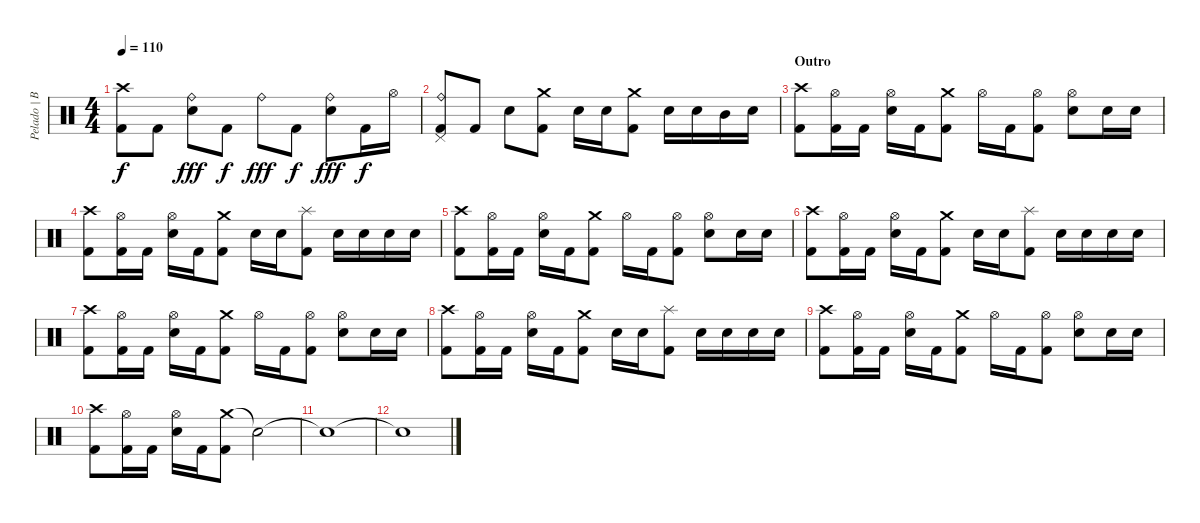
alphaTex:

\track ("Pelado | Bateria" "Pelado | B") {instrument percussion}
\staff {score}
\articulation defaults
\ts (4 4)
\tempo 110
\clef neutral
\ks c
("Crash high (hit)" "Kick (hit) 2").8{dy f} "Kick (hit) 2".8 ("Ride (bell)" "Snare (hit) 2").8{dy fff} "Kick (hit) 2".8{dy f} "Ride (bell)".8{dy fff} "Kick (hit) 2".8{dy f} ("Ride (bell)" "Snare (hit) 2").8{dy fff} "Kick (hit) 2".16{dy f} "Hi-Hat (open)".16 |
("Ride (bell)" "Pedal Hi-Hat (hit)" "Kick (hit) 2").8 "Kick (hit) 2".8 "Snare (hit) 2".8 ("Crash medium (hit)" "Kick (hit) 2").8 "Snare (hit) 2".16 "Snare (hit) 2".16 ("Crash medium (hit)" "Kick (hit) 2").8 "Snare (hit) 2".16 "Snare (hit) 2".16 "Mid Tom (hit)".16 "Snare (hit) 2".16 |
\section ("" "Outro")
("Crash high (hit)" "Kick (hit) 2").8 ("Hi-Hat (open)" "Kick (hit) 2").16 "Kick (hit) 2".16 ("Hi-Hat (open)" "Snare (hit) 2").16 "Kick (hit) 2".16 ("Crash medium (hit)" "Kick (hit) 2").8 "Hi-Hat (open)".16 "Kick (hit) 2".16 ("Hi-Hat (open)" "Kick (hit) 2").8 ("Hi-Hat (open)" "Snare (hit) 2").8 "Snare (hit) 2".16 "Snare (hit) 2".16 |
("Crash high (hit)" "Kick (hit) 2").8 ("Hi-Hat (open)" "Kick (hit) 2").16 "Kick (hit) 2".16 ("Hi-Hat (open)" "Snare (hit) 2").16 "Kick (hit) 2".16 ("Crash medium (hit)" "Kick (hit) 2").8 "Snare (hit) 2".16 "Snare (hit) 2".16 ("Splash (hit)" "Kick (hit) 2").8 "Snare (hit) 2".16 "Snare (hit) 2".16 "Snare (hit) 2".16 "Snare (hit) 2".16 |
("Crash high (hit)" "Kick (hit) 2").8 ("Hi-Hat (open)" "Kick (hit) 2").16 "Kick (hit) 2".16 ("Hi-Hat (open)" "Snare (hit) 2").16 "Kick (hit) 2".16 ("Crash medium (hit)" "Kick (hit) 2").8 "Hi-Hat (open)".16 "Kick (hit) 2".16 ("Hi-Hat (open)" "Kick (hit) 2").8 ("Hi-Hat (open)" "Snare (hit) 2").8 "Snare (hit) 2".16 "Snare (hit) 2".16 |
("Crash high (hit)" "Kick (hit) 2").8 ("Hi-Hat (open)" "Kick (hit) 2").16 "Kick (hit) 2".16 ("Hi-Hat (open)" "Snare (hit) 2").16 "Kick (hit) 2".16 ("Crash medium (hit)" "Kick (hit) 2").8 "Snare (hit) 2".16 "Snare (hit) 2".16 ("Splash (hit)" "Kick (hit) 2").8 "Snare (hit) 2".16 "Snare (hit) 2".16 "Snare (hit) 2".16 "Snare (hit) 2".16 |
("Crash high (hit)" "Kick (hit) 2").8 ("Hi-Hat (open)" "Kick (hit) 2").16 "Kick (hit) 2".16 ("Hi-Hat (open)" "Snare (hit) 2").16 "Kick (hit) 2".16 ("Crash medium (hit)" "Kick (hit) 2").8 "Hi-Hat (open)".16 "Kick (hit) 2".16 ("Hi-Hat (open)" "Kick (hit) 2").8 ("Hi-Hat (open)" "Snare (hit) 2").8 "Snare (hit) 2".16 "Snare (hit) 2".16 |
("Crash high (hit)" "Kick (hit) 2").8 ("Hi-Hat (open)" "Kick (hit) 2").16 "Kick (hit) 2".16 ("Hi-Hat (open)" "Snare (hit) 2").16 "Kick (hit) 2".16 ("Crash medium (hit)" "Kick (hit) 2").8 "Snare (hit) 2".16 "Snare (hit) 2".16 ("Splash (hit)" "Kick (hit) 2").8 "Snare (hit) 2".16 "Snare (hit) 2".16 "Snare (hit) 2".16 "Snare (hit) 2".16 |
("Crash high (hit)" "Kick (hit) 2").8 ("Hi-Hat (open)" "Kick (hit) 2").16 "Kick (hit) 2".16 ("Hi-Hat (open)" "Snare (hit) 2").16 "Kick (hit) 2".16 ("Crash medium (hit)" "Kick (hit) 2").8 "Hi-Hat (open)".16 "Kick (hit) 2".16 ("Hi-Hat (open)" "Kick (hit) 2").8 ("Hi-Hat (open)" "Snare (hit) 2").8 "Snare (hit) 2".16 "Snare (hit) 2".16 |
("Crash high (hit)" "Kick (hit) 2").8 ("Hi-Hat (open)" "Kick (hit) 2").16 "Kick (hit) 2".16 ("Hi-Hat (open)" "Snare (hit) 2").16 "Kick (hit) 2".16 ("Crash medium (hit)" "Kick (hit) 2").8 "Snare (hit)"{t}.2 |
"Snare (hit)"{t}.1{volume 6} |
"Snare (hit)"{t}.1{volume 0}
